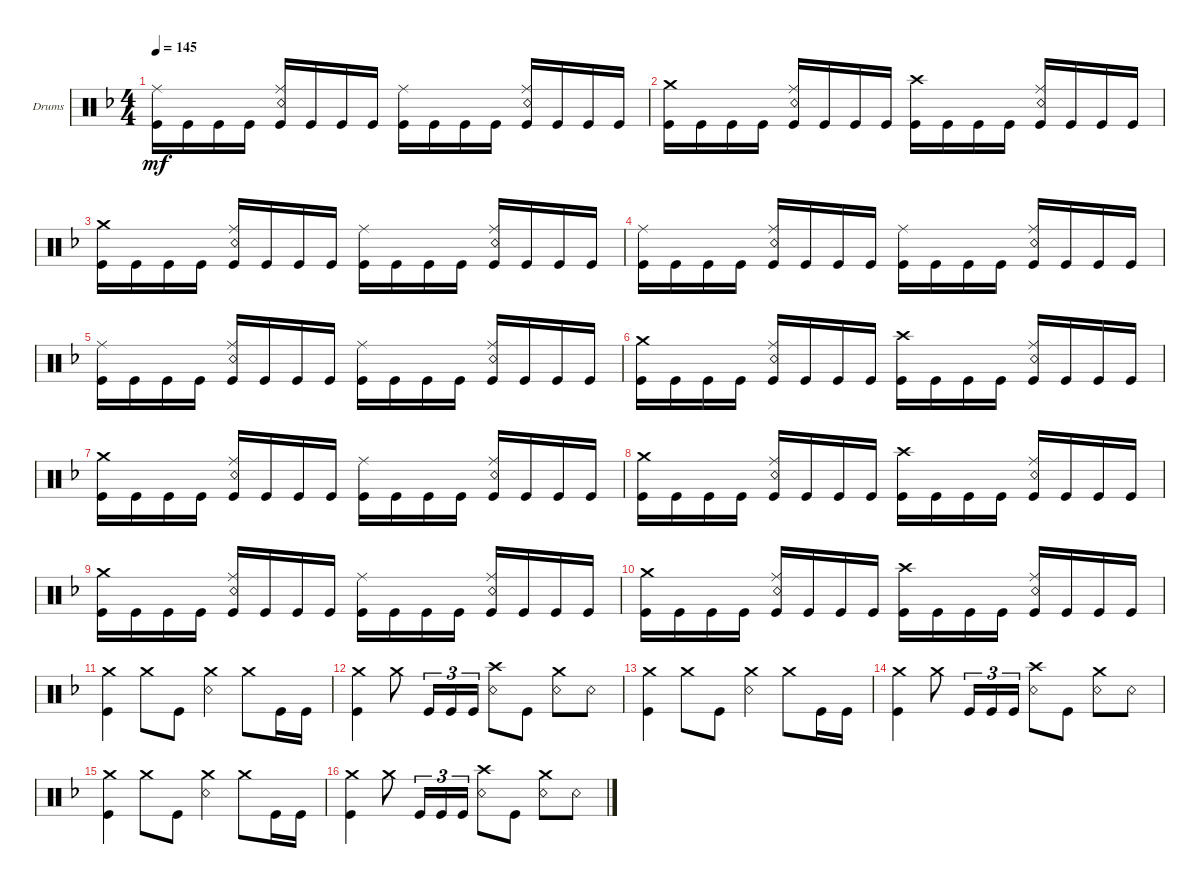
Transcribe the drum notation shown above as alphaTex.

\defaultSystemsLayout 4
\bracketExtendMode groupsimilarinstruments
\firstSystemTrackNameOrientation horizontal
\otherSystemsTrackNameOrientation horizontal
\track ("Drumkit" "Drums") {instrument percussion}
\staff {score}
\articulation defaults
\ts (4 4)
\tempo 145
\clef neutral
\ks dminor
("Kick (hit)" "Ride (middle)").16{dy mf} "Kick (hit)".16 "Kick (hit)".16 "Kick (hit)".16 ("Kick (hit)" "Ride (middle)" "Snare (rim shot)").16 "Kick (hit)".16 "Kick (hit)".16 "Kick (hit)".16 ("Kick (hit)" "Ride (middle)").16 "Kick (hit)".16 "Kick (hit)".16 "Kick (hit)".16 ("Kick (hit)" "Ride (middle)" "Snare (rim shot)").16 "Kick (hit)".16 "Kick (hit)".16 "Kick (hit)".16 |
("Kick (hit)" "Crash medium (hit)").16 "Kick (hit)".16 "Kick (hit)".16 "Kick (hit)".16 ("Kick (hit)" "Ride (middle)" "Snare (rim shot)").16 "Kick (hit)".16 "Kick (hit)".16 "Kick (hit)".16 ("Kick (hit)" "Crash high (hit)").16 "Kick (hit)".16 "Kick (hit)".16 "Kick (hit)".16 ("Kick (hit)" "Ride (middle)" "Snare (rim shot)").16 "Kick (hit)".16 "Kick (hit)".16 "Kick (hit)".16 |
("Kick (hit)" "Crash medium (hit)").16 "Kick (hit)".16 "Kick (hit)".16 "Kick (hit)".16 ("Kick (hit)" "Ride (middle)" "Snare (rim shot)").16 "Kick (hit)".16 "Kick (hit)".16 "Kick (hit)".16 ("Kick (hit)" "Ride (middle)").16 "Kick (hit)".16 "Kick (hit)".16 "Kick (hit)".16 ("Kick (hit)" "Ride (middle)" "Snare (rim shot)").16 "Kick (hit)".16 "Kick (hit)".16 "Kick (hit)".16 |
("Kick (hit)" "Ride (middle)").16 "Kick (hit)".16 "Kick (hit)".16 "Kick (hit)".16 ("Kick (hit)" "Ride (middle)" "Snare (rim shot)").16 "Kick (hit)".16 "Kick (hit)".16 "Kick (hit)".16 ("Kick (hit)" "Ride (middle)").16 "Kick (hit)".16 "Kick (hit)".16 "Kick (hit)".16 ("Kick (hit)" "Ride (middle)" "Snare (rim shot)").16 "Kick (hit)".16 "Kick (hit)".16 "Kick (hit)".16 |
("Kick (hit)" "Ride (middle)").16 "Kick (hit)".16 "Kick (hit)".16 "Kick (hit)".16 ("Kick (hit)" "Ride (middle)" "Snare (rim shot)").16 "Kick (hit)".16 "Kick (hit)".16 "Kick (hit)".16 ("Kick (hit)" "Ride (middle)").16 "Kick (hit)".16 "Kick (hit)".16 "Kick (hit)".16 ("Kick (hit)" "Ride (middle)" "Snare (rim shot)").16 "Kick (hit)".16 "Kick (hit)".16 "Kick (hit)".16 |
("Kick (hit)" "Crash medium (hit)").16 "Kick (hit)".16 "Kick (hit)".16 "Kick (hit)".16 ("Kick (hit)" "Ride (middle)" "Snare (rim shot)").16 "Kick (hit)".16 "Kick (hit)".16 "Kick (hit)".16 ("Kick (hit)" "Crash high (hit)").16 "Kick (hit)".16 "Kick (hit)".16 "Kick (hit)".16 ("Kick (hit)" "Ride (middle)" "Snare (rim shot)").16 "Kick (hit)".16 "Kick (hit)".16 "Kick (hit)".16 |
("Kick (hit)" "Crash medium (hit)").16 "Kick (hit)".16 "Kick (hit)".16 "Kick (hit)".16 ("Kick (hit)" "Ride (middle)" "Snare (rim shot)").16 "Kick (hit)".16 "Kick (hit)".16 "Kick (hit)".16 ("Kick (hit)" "Ride (middle)").16 "Kick (hit)".16 "Kick (hit)".16 "Kick (hit)".16 ("Kick (hit)" "Ride (middle)" "Snare (rim shot)").16 "Kick (hit)".16 "Kick (hit)".16 "Kick (hit)".16 |
("Kick (hit)" "Crash medium (hit)").16 "Kick (hit)".16 "Kick (hit)".16 "Kick (hit)".16 ("Kick (hit)" "Ride (middle)" "Snare (rim shot)").16 "Kick (hit)".16 "Kick (hit)".16 "Kick (hit)".16 ("Kick (hit)" "Crash high (hit)").16 "Kick (hit)".16 "Kick (hit)".16 "Kick (hit)".16 ("Kick (hit)" "Ride (middle)" "Snare (rim shot)").16 "Kick (hit)".16 "Kick (hit)".16 "Kick (hit)".16 |
("Kick (hit)" "Crash medium (hit)").16 "Kick (hit)".16 "Kick (hit)".16 "Kick (hit)".16 ("Kick (hit)" "Ride (middle)" "Snare (rim shot)").16 "Kick (hit)".16 "Kick (hit)".16 "Kick (hit)".16 ("Kick (hit)" "Ride (middle)").16 "Kick (hit)".16 "Kick (hit)".16 "Kick (hit)".16 ("Kick (hit)" "Ride (middle)" "Snare (rim shot)").16 "Kick (hit)".16 "Kick (hit)".16 "Kick (hit)".16 |
("Kick (hit)" "Crash medium (hit)").16 "Kick (hit)".16 "Kick (hit)".16 "Kick (hit)".16 ("Kick (hit)" "Ride (middle)" "Snare (rim shot)").16 "Kick (hit)".16 "Kick (hit)".16 "Kick (hit)".16 ("Kick (hit)" "Crash high (hit)").16 "Kick (hit)".16 "Kick (hit)".16 "Kick (hit)".16 ("Kick (hit)" "Ride (middle)" "Snare (rim shot)").16 "Kick (hit)".16 "Kick (hit)".16 "Kick (hit)".16 |
("Kick (hit)" "Crash medium (hit)").4 "Crash medium (hit)".8 "Kick (hit)".8 ("Snare (rim shot)" "Crash medium (hit)").4 "Crash medium (hit)".8 "Kick (hit)".16 "Kick (hit)".16 |
("Kick (hit)" "Crash medium (hit)").4 "Crash medium (hit)".8 "Kick (hit)".16{tu (3 2)} "Kick (hit)".16{tu (3 2)} "Kick (hit)".16{tu (3 2)} ("Snare (rim shot)" "Crash high (hit)").8 "Kick (hit)".8 ("Snare (rim shot)" "Crash medium (hit)").8 "Snare (rim shot)".8 |
("Kick (hit)" "Crash medium (hit)").4 "Crash medium (hit)".8 "Kick (hit)".8 ("Snare (rim shot)" "Crash medium (hit)").4 "Crash medium (hit)".8 "Kick (hit)".16 "Kick (hit)".16 |
("Kick (hit)" "Crash medium (hit)").4 "Crash medium (hit)".8 "Kick (hit)".16{tu (3 2)} "Kick (hit)".16{tu (3 2)} "Kick (hit)".16{tu (3 2)} ("Snare (rim shot)" "Crash high (hit)").8 "Kick (hit)".8 ("Snare (rim shot)" "Crash medium (hit)").8 "Snare (rim shot)".8 |
("Kick (hit)" "Crash medium (hit)").4 "Crash medium (hit)".8 "Kick (hit)".8 ("Snare (rim shot)" "Crash medium (hit)").4 "Crash medium (hit)".8 "Kick (hit)".16 "Kick (hit)".16 |
("Kick (hit)" "Crash medium (hit)").4 "Crash medium (hit)".8 "Kick (hit)".16{tu (3 2)} "Kick (hit)".16{tu (3 2)} "Kick (hit)".16{tu (3 2)} ("Snare (rim shot)" "Crash high (hit)").8 "Kick (hit)".8 ("Snare (rim shot)" "Crash medium (hit)").8 "Snare (rim shot)".8
